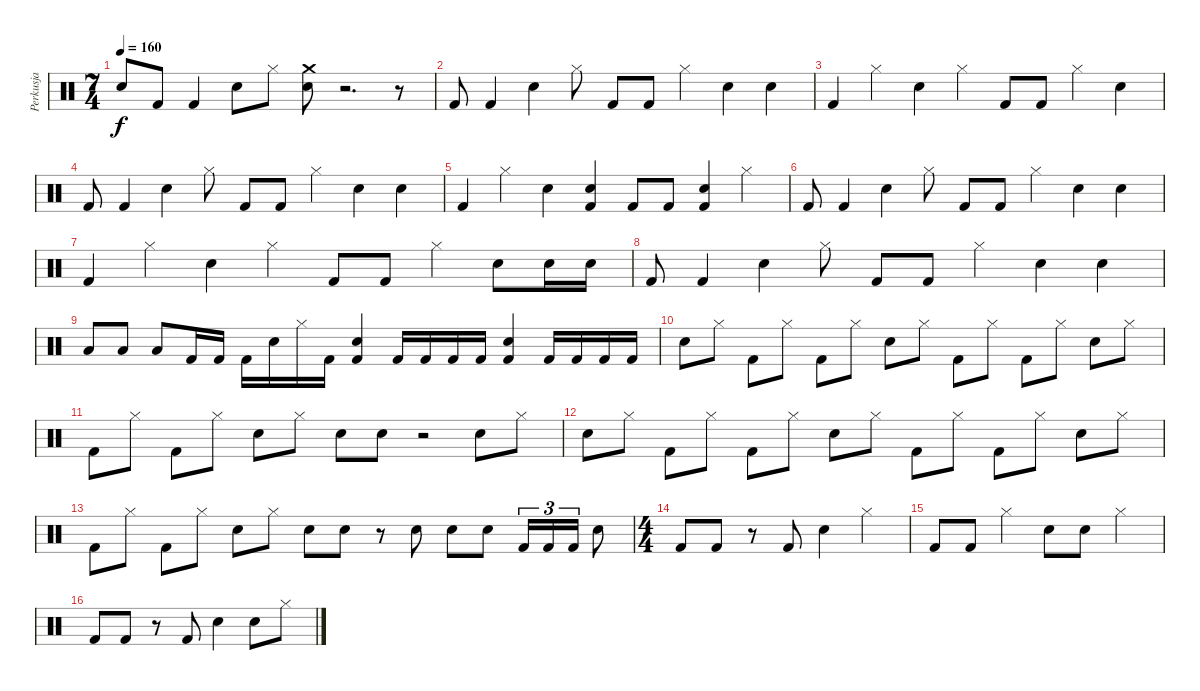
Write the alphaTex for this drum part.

\track ("Perkusja" "Perkusja") {instrument percussion}
\staff {score}
\articulation defaults
\ts (7 4)
\tempo 160
\clef neutral
\ks c "Snare (hit) 2".8{dy f} "Kick (hit) 2".8 "Kick (hit) 2".4 "Snare (hit) 2".8 "Hi-Hat (closed)".8
("Snare (hit) 2" "Crash medium (hit)").8 r.2{d} r.8 |
"Kick (hit) 2".8 "Kick (hit) 2".4 "Snare (hit) 2".4 "Hi-Hat (closed)".8 "Kick (hit) 2".8 "Kick (hit) 2".8 "Hi-Hat (closed)".4 "Snare (hit) 2".4 "Snare (hit) 2".4 |
"Kick (hit) 2".4 "Hi-Hat (closed)".4 "Snare (hit) 2".4 "Hi-Hat (closed)".4 "Kick (hit) 2".8 "Kick (hit) 2".8 "Hi-Hat (closed)".4 "Snare (hit) 2".4 |
"Kick (hit) 2".8 "Kick (hit) 2".4 "Snare (hit) 2".4 "Hi-Hat (closed)".8 "Kick (hit) 2".8 "Kick (hit) 2".8 "Hi-Hat (closed)".4 "Snare (hit) 2".4 "Snare (hit) 2".4 |
"Kick (hit) 2".4 "Hi-Hat (closed)".4 "Snare (hit) 2".4 ("Snare (hit) 2" "Kick (hit) 2").4 "Kick (hit) 2".8 "Kick (hit) 2".8 ("Snare (hit) 2" "Kick (hit) 2").4 "Hi-Hat (closed)".4 |
"Kick (hit) 2".8 "Kick (hit) 2".4 "Snare (hit) 2".4 "Hi-Hat (closed)".8 "Kick (hit) 2".8 "Kick (hit) 2".8 "Hi-Hat (closed)".4 "Snare (hit) 2".4 "Snare (hit) 2".4 |
"Kick (hit) 2".4 "Hi-Hat (closed)".4 "Snare (hit) 2".4 "Hi-Hat (closed)".4 "Kick (hit) 2".8 "Kick (hit) 2".8 "Hi-Hat (closed)".4 "Snare (hit) 2".8 "Snare (hit) 2".16 "Snare (hit) 2".16 |
"Kick (hit) 2".8 "Kick (hit) 2".4 "Snare (hit) 2".4 "Hi-Hat (closed)".8 "Kick (hit) 2".8 "Kick (hit) 2".8 "Hi-Hat (closed)".4 "Snare (hit) 2".4 "Snare (hit) 2".4 |
"Low Floor Tom (hit)".8 "Low Floor Tom (hit)".8 "Low Floor Tom (hit)".8 "Kick (hit) 2".16 "Kick (hit) 2".16 "Kick (hit) 2".16 "Snare (hit) 2".16 "Hi-Hat (closed)".16 "Kick (hit) 2".16 ("Snare (hit) 2" "Kick (hit) 2").4 "Kick (hit) 2".16 "Kick (hit) 2".16 "Kick (hit) 2".16 "Kick (hit) 2".16 ("Snare (hit) 2" "Kick (hit) 2").4 "Kick (hit) 2".16 "Kick (hit) 2".16 "Kick (hit) 2".16 "Kick (hit) 2".16 |
"Snare (hit) 2".8 "Hi-Hat (closed)".8 "Kick (hit) 2".8 "Hi-Hat (closed)".8 "Kick (hit) 2".8 "Hi-Hat (closed)".8 "Snare (hit) 2".8 "Hi-Hat (closed)".8 "Kick (hit) 2".8 "Hi-Hat (closed)".8 "Kick (hit) 2".8 "Hi-Hat (closed)".8 "Snare (hit) 2".8 "Hi-Hat (closed)".8 |
"Kick (hit) 2".8 "Hi-Hat (closed)".8 "Kick (hit) 2".8 "Hi-Hat (closed)".8 "Snare (hit) 2".8 "Hi-Hat (closed)".8 "Snare (hit) 2".8 "Snare (hit) 2".8 r.2 "Snare (hit) 2".8 "Hi-Hat (closed)".8 |
"Snare (hit) 2".8 "Hi-Hat (closed)".8 "Kick (hit) 2".8 "Hi-Hat (closed)".8 "Kick (hit) 2".8 "Hi-Hat (closed)".8 "Snare (hit) 2".8 "Hi-Hat (closed)".8 "Kick (hit) 2".8 "Hi-Hat (closed)".8 "Kick (hit) 2".8 "Hi-Hat (closed)".8 "Snare (hit) 2".8 "Hi-Hat (closed)".8 |
"Kick (hit) 2".8 "Hi-Hat (closed)".8 "Kick (hit) 2".8 "Hi-Hat (closed)".8 "Snare (hit) 2".8 "Hi-Hat (closed)".8 "Snare (hit) 2".8 "Snare (hit) 2".8 r.8 "Snare (hit) 2".8 "Snare (hit) 2".8 "Snare (hit) 2".8 "Kick (hit) 2".16{tu (3 2)} "Kick (hit) 2".16{tu (3 2)} "Kick (hit) 2".16{tu (3 2)} "Snare (hit) 2".8 |
\ts (4 4)
"Kick (hit) 2".8 "Kick (hit) 2".8 r.8 "Kick (hit) 2".8 "Snare (hit) 2".4 "Hi-Hat (closed)".4 |
"Kick (hit) 2".8 "Kick (hit) 2".8 "Hi-Hat (closed)".4 "Snare (hit) 2".8 "Snare (hit) 2".8 "Hi-Hat (closed)".4 |
"Kick (hit) 2".8 "Kick (hit) 2".8 r.8 "Kick (hit) 2".8 "Snare (hit) 2".4 "Snare (hit) 2".8 "Hi-Hat (closed)".8
